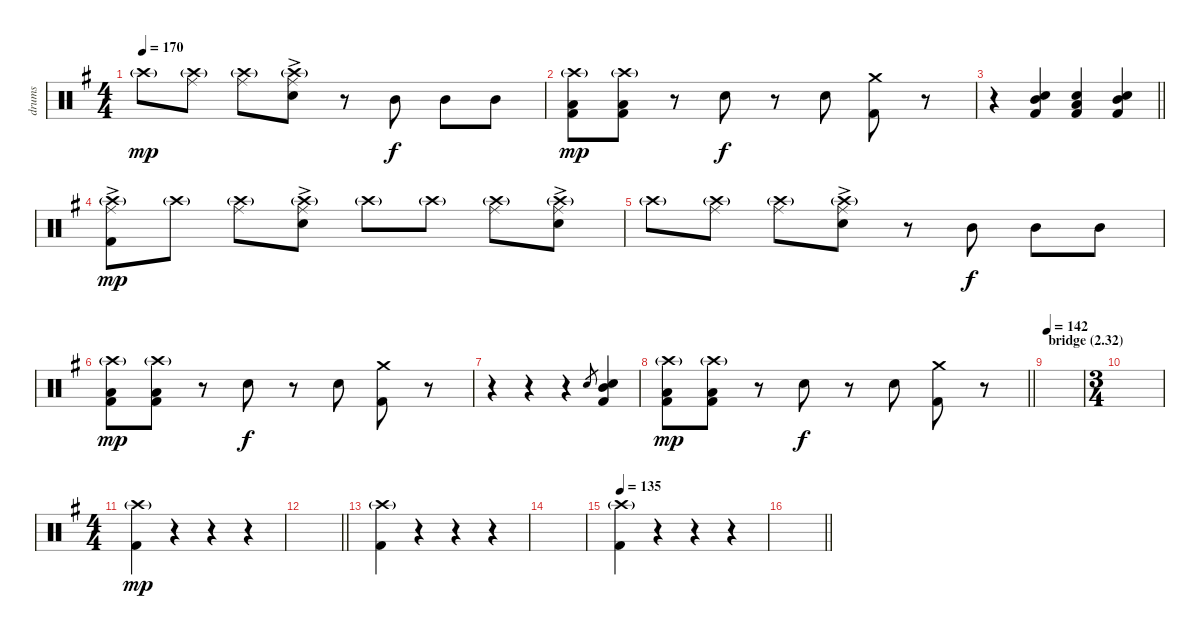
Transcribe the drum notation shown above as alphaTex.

\track ("drums" "drums") {instrument percussion}
\staff {score}
\articulation defaults
\ts (4 4)
\tempo 170
\clef neutral
\ks g "Crash high (hit)"{g}.8{dy mp}
("Ride (middle)" "Crash high (hit)"{g}).8 ("Ride (middle)" "Crash high (hit)"{g}).8 ("Ride (middle)"{ac} "Crash high (hit)"{g} "Electric Snare (hit)").8 r.8 "Mid Tom (hit)".8{dy f} "Mid Tom (hit)".8 "Mid Tom (hit)".8 |
("Crash high (hit)"{g} "Low Tom (hit)" "Kick (hit) 2").8{dy mp} ("Crash high (hit)"{g} "Low Tom (hit)" "Kick (hit) 2").8 r.8 "Electric Snare (hit)".8{dy f} r.8 "Electric Snare (hit)".8 ("Crash medium (hit)" "Kick (hit) 2").8 r.8 |
\barLineRight lightlight
r.4 ("Mid Tom (hit)" "Electric Snare (hit)" "Kick (hit) 2").4 ("Low Tom (hit)" "Electric Snare (hit)" "Kick (hit) 2").4 ("Mid Tom (hit)" "Electric Snare (hit)" "Kick (hit) 2").4 |
("Ride (middle)"{ac} "Crash high (hit)"{g} "Kick (hit) 2").8{dy mp} "Crash high (hit)"{g}.8 ("Ride (middle)" "Crash high (hit)"{g}).8 ("Ride (middle)"{ac} "Crash high (hit)"{g} "Electric Snare (hit)").8 "Crash high (hit)"{g}.8 "Crash high (hit)"{g}.8 ("Ride (middle)" "Crash high (hit)"{g}).8 ("Ride (middle)"{ac} "Crash high (hit)"{g} "Electric Snare (hit)").8 |
"Crash high (hit)"{g}.8 ("Ride (middle)" "Crash high (hit)"{g}).8 ("Ride (middle)" "Crash high (hit)"{g}).8 ("Ride (middle)"{ac} "Crash high (hit)"{g} "Electric Snare (hit)").8 r.8 "Mid Tom (hit)".8{dy f} "Mid Tom (hit)".8 "Mid Tom (hit)".8 |
("Crash high (hit)"{g} "Low Tom (hit)" "Kick (hit) 2").8{dy mp} ("Crash high (hit)"{g} "Low Tom (hit)" "Kick (hit) 2").8 r.8 "Electric Snare (hit)".8{dy f} r.8 "Electric Snare (hit)".8 ("Crash medium (hit)" "Kick (hit) 2").8 r.8 |
r.4 r.4 r.4 "Electric Snare (hit)".8{gr} ("Mid Tom (hit)" "Electric Snare (hit)" "Kick (hit) 2").4 |
\barLineRight lightlight
("Crash high (hit)"{g} "Low Tom (hit)" "Kick (hit) 2").8{dy mp} ("Crash high (hit)"{g} "Low Tom (hit)" "Kick (hit) 2").8 r.8 "Electric Snare (hit)".8{dy f} r.8 "Electric Snare (hit)".8 ("Crash medium (hit)" "Kick (hit) 2").8 r.8 |
\section ("" "bridge (2.32)")
\tempo 142
|
\ts (3 4)
|
\ts (4 4)
("Crash high (hit)"{g} "Kick (hit) 2").4{dy mp} r.4 r.4 r.4 |
\barLineRight lightlight
|
("Crash high (hit)"{g} "Kick (hit) 2").4 r.4 r.4 r.4 |
|
\tempo 135
("Crash high (hit)"{g} "Kick (hit) 2").4 r.4 r.4 r.4 |
\barLineRight lightlight
